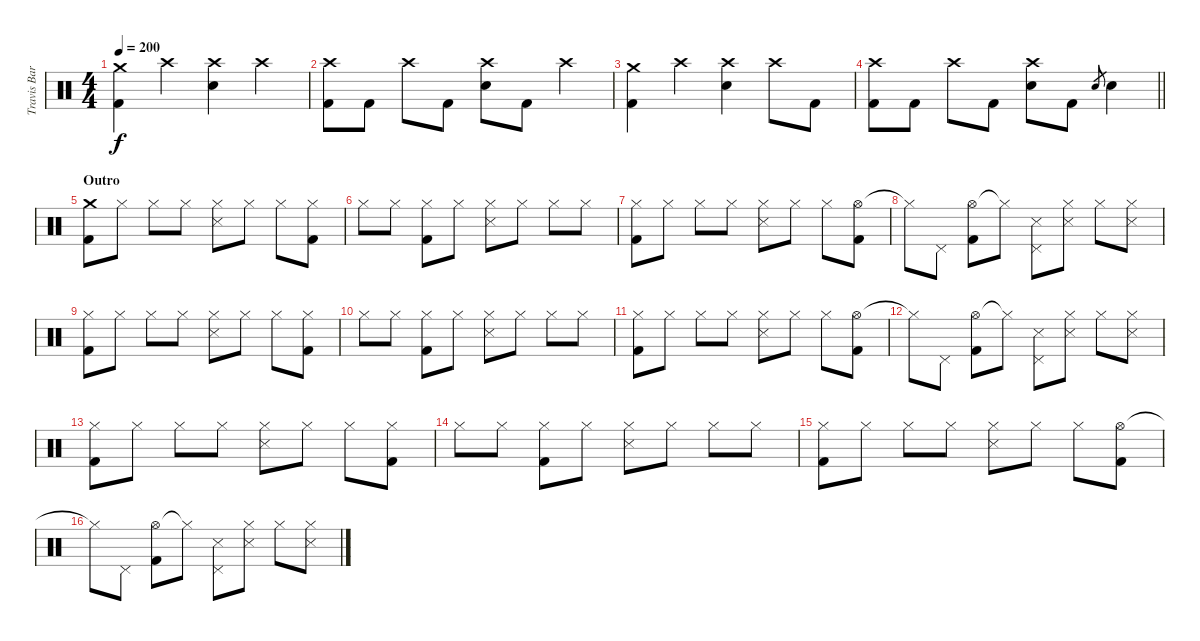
\track ("Travis Barker - Drums" "Travis Bar") {instrument percussion}
\staff {score}
\articulation defaults
\ts (4 4)
\tempo 200
\clef neutral
\ks c
("Crash medium (hit)" "Kick (hit) 2").4{dy f} "Crash high (hit)".4 ("Crash high (hit)" "Electric Snare (hit)").4 "Crash high (hit)".4 |
("Crash high (hit)" "Kick (hit) 2").8 "Kick (hit) 2".8 "Crash high (hit)".8 "Kick (hit) 2".8 ("Crash high (hit)" "Electric Snare (hit)").8 "Kick (hit) 2".8 "Crash high (hit)".4 |
("Crash medium (hit)" "Kick (hit) 2").4 "Crash high (hit)".4 ("Crash high (hit)" "Electric Snare (hit)").4 "Crash high (hit)".8 "Kick (hit) 2".8 |
\barLineRight lightlight
("Crash high (hit)" "Kick (hit) 2").8 "Kick (hit) 2".8 "Crash high (hit)".8 "Kick (hit) 2".8 ("Crash high (hit)" "Electric Snare (hit)").8 "Kick (hit) 2".8 "Electric Snare (hit)".8{gr} "Electric Snare (hit)".4 |
\section ("" "Outro")
("Crash medium (hit)" "Kick (hit) 2").8 "Hi-Hat (closed)".8 "Hi-Hat (closed)".8 "Hi-Hat (closed)".8 ("Hi-Hat (closed)" "Snare (side stick) 3").8 "Hi-Hat (closed)".8 "Hi-Hat (closed)".8 ("Hi-Hat (closed)" "Kick (hit) 2").8 |
"Hi-Hat (closed)".8 "Hi-Hat (closed)".8 ("Hi-Hat (closed)" "Kick (hit) 2").8 "Hi-Hat (closed)".8 ("Hi-Hat (closed)" "Snare (side stick) 3").8 "Hi-Hat (closed)".8 "Hi-Hat (closed)".8 "Hi-Hat (closed)".8 |
("Hi-Hat (closed)" "Kick (hit) 2").8 "Hi-Hat (closed)".8 "Hi-Hat (closed)".8 "Hi-Hat (closed)".8 ("Hi-Hat (closed)" "Snare (side stick) 3").8 "Hi-Hat (closed)".8 "Hi-Hat (closed)".8 ("Hi-Hat (open)" "Kick (hit) 2").8 |
"Hi-Hat (closed)"{t}.8 "Pedal Hi-Hat (hit)".8 ("Hi-Hat (open)" "Kick (hit) 2").8 "Hi-Hat (closed)"{t}.8 ("Pedal Hi-Hat (hit)" "Snare (side stick) 3").8 ("Hi-Hat (closed)" "Snare (side stick) 3").8 "Hi-Hat (closed)".8 ("Hi-Hat (closed)" "Snare (side stick) 3").8 |
("Hi-Hat (closed)" "Kick (hit) 2").8 "Hi-Hat (closed)".8 "Hi-Hat (closed)".8 "Hi-Hat (closed)".8 ("Hi-Hat (closed)" "Snare (side stick) 3").8 "Hi-Hat (closed)".8 "Hi-Hat (closed)".8 ("Hi-Hat (closed)" "Kick (hit) 2").8 |
"Hi-Hat (closed)".8 "Hi-Hat (closed)".8 ("Hi-Hat (closed)" "Kick (hit) 2").8 "Hi-Hat (closed)".8 ("Hi-Hat (closed)" "Snare (side stick) 3").8 "Hi-Hat (closed)".8 "Hi-Hat (closed)".8 "Hi-Hat (closed)".8 |
("Hi-Hat (closed)" "Kick (hit) 2").8 "Hi-Hat (closed)".8 "Hi-Hat (closed)".8 "Hi-Hat (closed)".8 ("Hi-Hat (closed)" "Snare (side stick) 3").8 "Hi-Hat (closed)".8 "Hi-Hat (closed)".8 ("Hi-Hat (open)" "Kick (hit) 2").8 |
"Hi-Hat (closed)"{t}.8 "Pedal Hi-Hat (hit)".8 ("Hi-Hat (open)" "Kick (hit) 2").8 "Hi-Hat (closed)"{t}.8 ("Pedal Hi-Hat (hit)" "Snare (side stick) 3").8 ("Hi-Hat (closed)" "Snare (side stick) 3").8 "Hi-Hat (closed)".8 ("Hi-Hat (closed)" "Snare (side stick) 3").8 |
("Hi-Hat (closed)" "Kick (hit) 2").8 "Hi-Hat (closed)".8 "Hi-Hat (closed)".8 "Hi-Hat (closed)".8 ("Hi-Hat (closed)" "Snare (side stick) 3").8 "Hi-Hat (closed)".8 "Hi-Hat (closed)".8 ("Hi-Hat (closed)" "Kick (hit) 2").8 |
"Hi-Hat (closed)".8 "Hi-Hat (closed)".8 ("Hi-Hat (closed)" "Kick (hit) 2").8 "Hi-Hat (closed)".8 ("Hi-Hat (closed)" "Snare (side stick) 3").8 "Hi-Hat (closed)".8 "Hi-Hat (closed)".8 "Hi-Hat (closed)".8 |
("Hi-Hat (closed)" "Kick (hit) 2").8 "Hi-Hat (closed)".8 "Hi-Hat (closed)".8 "Hi-Hat (closed)".8 ("Hi-Hat (closed)" "Snare (side stick) 3").8 "Hi-Hat (closed)".8 "Hi-Hat (closed)".8 ("Hi-Hat (open)" "Kick (hit) 2").8 |
"Hi-Hat (closed)"{t}.8 "Pedal Hi-Hat (hit)".8 ("Hi-Hat (open)" "Kick (hit) 2").8 "Hi-Hat (closed)"{t}.8 ("Pedal Hi-Hat (hit)" "Snare (side stick) 3").8 ("Hi-Hat (closed)" "Snare (side stick) 3").8 "Hi-Hat (closed)".8 ("Hi-Hat (closed)" "Snare (side stick) 3").8
